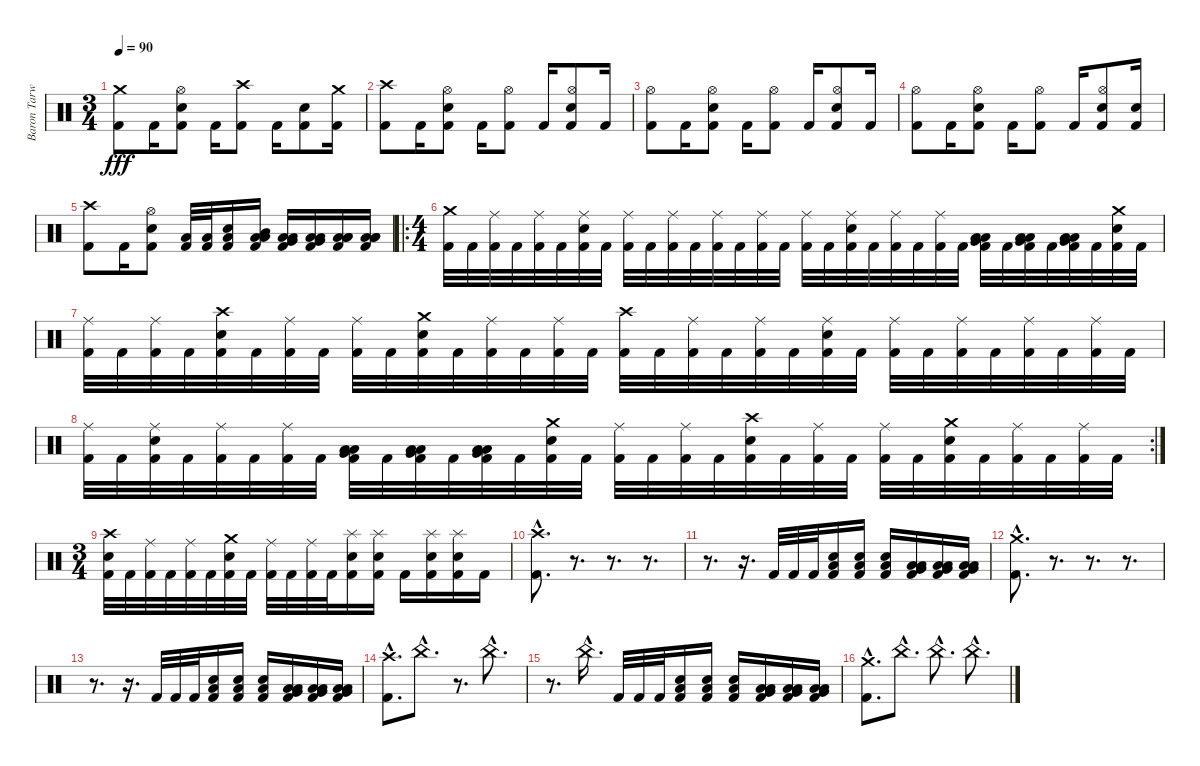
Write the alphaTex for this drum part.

\track ("Baron Tarwonen" "Baron Tarw") {instrument percussion}
\staff {score}
\articulation defaults
\ts (3 4)
\tempo 90
\clef neutral
\ks c
("Crash medium (hit)" "Kick (hit) 2").8{dy fff} "Kick (hit) 2".16 ("Hi-Hat (open)" "Snare (hit) 2" "Kick (hit) 2").8 "Kick (hit) 2".16 ("Crash high (hit)" "Kick (hit) 2").8 "Kick (hit) 2".16 ("Snare (hit) 2" "Kick (hit) 2").8 ("Crash medium (hit)" "Kick (hit) 2").16 |
("Crash high (hit)" "Kick (hit) 2").8 "Kick (hit) 2".16 ("Hi-Hat (open)" "Snare (hit) 2" "Kick (hit) 2").8 "Kick (hit) 2".16 ("Hi-Hat (open)" "Kick (hit) 2").8 "Kick (hit) 2".16 ("Hi-Hat (open)" "Snare (hit) 2" "Kick (hit) 2").8 "Kick (hit) 2".16 |
("Hi-Hat (open)" "Kick (hit) 2").8 "Kick (hit) 2".16 ("Hi-Hat (open)" "Snare (hit) 2" "Kick (hit) 2").8 "Kick (hit) 2".16 ("Hi-Hat (open)" "Kick (hit) 2").8 "Kick (hit) 2".16 ("Hi-Hat (open)" "Snare (hit) 2" "Kick (hit) 2").8 "Kick (hit) 2".16 |
("Hi-Hat (open)" "Kick (hit) 2").8 "Kick (hit) 2".16 ("Hi-Hat (open)" "Snare (hit) 2" "Kick (hit) 2").8 "Kick (hit) 2".16 ("Hi-Hat (open)" "Kick (hit) 2").8 "Kick (hit) 2".16 ("Hi-Hat (open)" "Snare (hit) 2" "Kick (hit) 2").8 ("Snare (hit) 2" "Kick (hit) 2").16 |
("Crash high (hit)" "Kick (hit) 2").8 "Kick (hit) 2".16 ("Hi-Hat (open)" "Snare (hit) 2" "Kick (hit) 2").8 ("Low Floor Tom (hit)" "Kick (hit) 2").32 ("Low Floor Tom (hit)" "Kick (hit) 2").32 ("Snare (hit) 2" "Low Floor Tom (hit)" "Kick (hit) 2").16 ("Mid Tom (hit)" "Low Tom (hit)" "Low Floor Tom (hit)" "Kick (hit) 2").16 ("Low Tom (hit)" "Very Low Tom (hit)" "Low Floor Tom (hit)" "Kick (hit) 2").16 ("Very Low Tom (hit)" "Low Floor Tom (hit)" "Low Floor Tom (hit)" "Kick (hit) 2").16 ("Low Floor Tom (hit)" "Low Floor Tom (hit)" "Low Floor Tom (hit)" "Kick (hit) 2").16 ("Low Floor Tom (hit)" "Low Floor Tom (hit)" "Low Floor Tom (hit)" "Kick (hit) 2").16 |
\ro
\ts (4 4)
("Crash medium (hit)" "Kick (hit) 2").32 "Kick (hit) 2".32 ("Ride (middle)" "Kick (hit) 2").32 "Kick (hit) 2".32 ("Ride (middle)" "Kick (hit) 2").32 "Kick (hit) 2".32 ("Ride (middle)" "Snare (hit) 2" "Kick (hit) 2").32 "Kick (hit) 2".32 ("Ride (middle)" "Kick (hit) 2").32 "Kick (hit) 2".32 ("Ride (middle)" "Kick (hit) 2").32 "Kick (hit) 2".32 ("Ride (middle)" "Kick (hit) 2").32 "Kick (hit) 2".32 ("Ride (middle)" "Kick (hit) 2").32 "Kick (hit) 2".32 ("Ride (middle)" "Kick (hit) 2").32 "Kick (hit) 2".32 ("Ride (middle)" "Snare (hit) 2" "Kick (hit) 2").32 "Kick (hit) 2".32 ("Ride (middle)" "Kick (hit) 2").32 "Kick (hit) 2".32 ("Ride (middle)" "Kick (hit) 2").32 "Kick (hit) 2".32 ("Low Tom (hit)" "Low Floor Tom (hit)" "Very Low Tom (hit)" "Kick (hit) 2").32 "Kick (hit) 2".32 ("Low Tom (hit)" "Low Floor Tom (hit)" "Very Low Tom (hit)" "Kick (hit) 2").32 "Kick (hit) 2".32 ("Low Tom (hit)" "Low Floor Tom (hit)" "Very Low Tom (hit)" "Kick (hit) 2").32 "Kick (hit) 2".32 ("Crash medium (hit)" "Snare (hit) 2" "Kick (hit) 2").32 "Kick (hit) 2".32 |
("Ride (middle)" "Kick (hit) 2").32 "Kick (hit) 2".32 ("Ride (middle)" "Kick (hit) 2").32 "Kick (hit) 2".32 ("Crash high (hit)" "Snare (hit) 2" "Kick (hit) 2").32 "Kick (hit) 2".32 ("Ride (middle)" "Kick (hit) 2").32 "Kick (hit) 2".32 ("Ride (middle)" "Kick (hit) 2").32 "Kick (hit) 2".32 ("Crash medium (hit)" "Snare (hit) 2" "Kick (hit) 2").32 "Kick (hit) 2".32 ("Ride (middle)" "Kick (hit) 2").32 "Kick (hit) 2".32 ("Ride (middle)" "Kick (hit) 2").32 "Kick (hit) 2".32 ("Crash high (hit)" "Kick (hit) 2").32 "Kick (hit) 2".32 ("Ride (middle)" "Kick (hit) 2").32 "Kick (hit) 2".32 ("Ride (middle)" "Kick (hit) 2").32 "Kick (hit) 2".32 ("Ride (middle)" "Snare (hit) 2" "Kick (hit) 2").32 "Kick (hit) 2".32 ("Ride (middle)" "Kick (hit) 2").32 "Kick (hit) 2".32 ("Ride (middle)" "Kick (hit) 2").32 "Kick (hit) 2".32 ("Ride (middle)" "Kick (hit) 2").32 "Kick (hit) 2".32 ("Ride (middle)" "Kick (hit) 2").32 "Kick (hit) 2".32 |
\rc 2
("Ride (middle)" "Kick (hit) 2").32 "Kick (hit) 2".32 ("Ride (middle)" "Snare (hit) 2" "Kick (hit) 2").32 "Kick (hit) 2".32 ("Ride (middle)" "Kick (hit) 2").32 "Kick (hit) 2".32 ("Ride (middle)" "Kick (hit) 2").32 "Kick (hit) 2".32 ("Low Tom (hit)" "Very Low Tom (hit)" "Low Floor Tom (hit)" "Kick (hit) 2").32 "Kick (hit) 2".32 ("Low Tom (hit)" "Very Low Tom (hit)" "Low Floor Tom (hit)" "Kick (hit) 2").32 "Kick (hit) 2".32 ("Low Tom (hit)" "Very Low Tom (hit)" "Low Floor Tom (hit)" "Kick (hit) 2").32 "Kick (hit) 2".32 ("Crash medium (hit)" "Snare (hit) 2" "Kick (hit) 2").32 "Kick (hit) 2".32 ("Ride (middle)" "Kick (hit) 2").32 "Kick (hit) 2".32 ("Ride (middle)" "Kick (hit) 2").32 "Kick (hit) 2".32 ("Crash high (hit)" "Snare (hit) 2" "Kick (hit) 2").32 "Kick (hit) 2".32 ("Ride (middle)" "Kick (hit) 2").32 "Kick (hit) 2".32 ("Ride (middle)" "Kick (hit) 2").32 "Kick (hit) 2".32 ("Crash medium (hit)" "Snare (hit) 2" "Kick (hit) 2").32 "Kick (hit) 2".32 ("Ride (middle)" "Kick (hit) 2").32 "Kick (hit) 2".32 ("Ride (middle)" "Kick (hit) 2").32 "Kick (hit) 2".32 |
\ts (3 4)
("Crash high (hit)" "Snare (hit) 2" "Kick (hit) 2").32 "Kick (hit) 2".32 ("Ride (middle)" "Kick (hit) 2").32 "Kick (hit) 2".32 ("Ride (middle)" "Kick (hit) 2").32 "Kick (hit) 2".32 ("Crash medium (hit)" "Snare (hit) 2" "Kick (hit) 2").32 "Kick (hit) 2".32 ("Ride (middle)" "Kick (hit) 2").32 "Kick (hit) 2".32 ("Ride (middle)" "Kick (hit) 2").32 "Kick (hit) 2".32 ("Splash (hit)" "Snare (hit) 2" "Kick (hit) 2").16 ("Splash (hit)" "Snare (hit) 2" "Kick (hit) 2").16 "Kick (hit) 2".16 ("Splash (hit)" "Snare (hit) 2" "Kick (hit) 2").16 ("Splash (hit)" "Snare (hit) 2" "Kick (hit) 2").16 "Kick (hit) 2".16 |
("Crash high (hit)"{hac} "Kick (hit) 2"{hac}).8{d} r.8{d} r.8{d} r.8{d} |
r.8{d} r.16{d} "Kick (hit) 2".32 "Kick (hit) 2".32 "Kick (hit) 2".32 ("Snare (hit) 2" "Low Floor Tom (hit)" "Kick (hit) 2").16 ("Snare (hit) 2" "Low Floor Tom (hit)" "Kick (hit) 2").16 ("Snare (hit) 2" "Low Floor Tom (hit)" "Kick (hit) 2").16 ("Low Tom (hit)" "Very Low Tom (hit)" "Low Floor Tom (hit)" "Kick (hit) 2").16 ("Low Tom (hit)" "Very Low Tom (hit)" "Low Floor Tom (hit)" "Kick (hit) 2").16 ("Low Tom (hit)" "Very Low Tom (hit)" "Low Floor Tom (hit)" "Kick (hit) 2").16 |
("Crash medium (hit)"{hac} "Kick (hit) 2"{hac}).8{d} r.8{d} r.8{d} r.8{d} |
r.8{d} r.16{d} "Kick (hit) 2".32 "Kick (hit) 2".32 "Kick (hit) 2".32 ("Snare (hit) 2" "Low Floor Tom (hit)" "Kick (hit) 2").16 ("Snare (hit) 2" "Low Floor Tom (hit)" "Kick (hit) 2").16 ("Snare (hit) 2" "Low Floor Tom (hit)" "Kick (hit) 2").16 ("Low Tom (hit)" "Very Low Tom (hit)" "Low Floor Tom (hit)" "Kick (hit) 2").16 ("Low Tom (hit)" "Very Low Tom (hit)" "Low Floor Tom (hit)" "Kick (hit) 2").16 ("Low Tom (hit)" "Very Low Tom (hit)" "Low Floor Tom (hit)" "Kick (hit) 2").16 |
("Crash high (hit)"{hac} "Kick (hit) 2"{hac}).8{d} "China (hit)"{hac}.8{d} r.8{d} "China (hit)"{hac}.8{d} |
r.8{d} "China (hit)"{hac}.16{d} "Kick (hit) 2".32 "Kick (hit) 2".32 "Kick (hit) 2".32 ("Snare (hit) 2" "Low Floor Tom (hit)" "Kick (hit) 2").16 ("Snare (hit) 2" "Low Floor Tom (hit)" "Kick (hit) 2").16 ("Snare (hit) 2" "Low Floor Tom (hit)" "Kick (hit) 2").16 ("Low Tom (hit)" "Very Low Tom (hit)" "Low Floor Tom (hit)" "Kick (hit) 2").16 ("Low Tom (hit)" "Very Low Tom (hit)" "Low Floor Tom (hit)" "Kick (hit) 2").16 ("Low Tom (hit)" "Very Low Tom (hit)" "Low Floor Tom (hit)" "Kick (hit) 2").16 |
("Crash medium (hit)"{hac} "Kick (hit) 2"{hac}).8{d} "China (hit)"{hac}.8{d} "China (hit)"{hac}.8{d} "China (hit)"{hac}.8{d}
